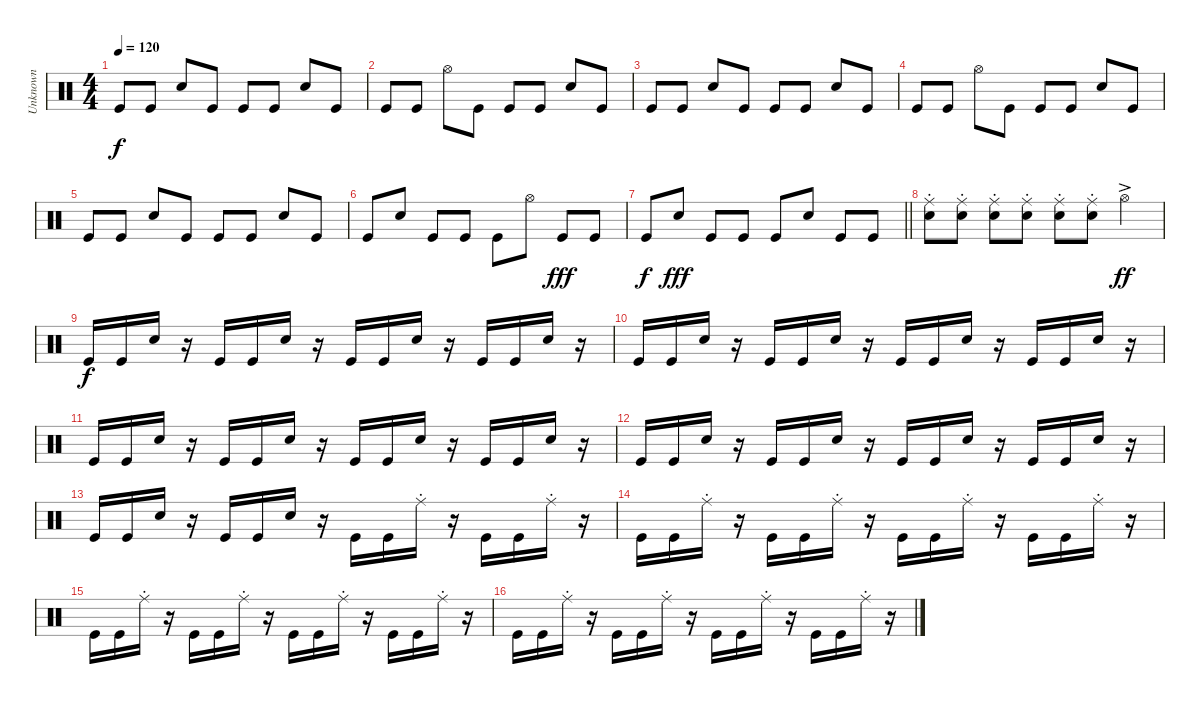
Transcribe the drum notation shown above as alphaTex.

\track ("Unknown" "Unknown") {instrument percussion}
\staff {score}
\articulation defaults
\ts (4 4)
\tempo 120
\clef neutral
\ks c "Kick (hit)".8{dy f} "Kick (hit)".8 "Snare (hit) 2".8 "Kick (hit)".8 "Kick (hit)".8 "Kick (hit)".8 "Snare (hit) 2".8 "Kick (hit)".8
|
"Kick (hit)".8 "Kick (hit)".8 "Hi-Hat (open)".8 "Kick (hit)".8 "Kick (hit)".8 "Kick (hit)".8 "Snare (hit) 2".8 "Kick (hit)".8 |
"Kick (hit)".8 "Kick (hit)".8 "Snare (hit) 2".8 "Kick (hit)".8 "Kick (hit)".8 "Kick (hit)".8 "Snare (hit) 2".8 "Kick (hit)".8 |
"Kick (hit)".8 "Kick (hit)".8 "Hi-Hat (open)".8 "Kick (hit)".8 "Kick (hit)".8 "Kick (hit)".8 "Snare (hit) 2".8 "Kick (hit)".8 |
"Kick (hit)".8 "Kick (hit)".8 "Snare (hit) 2".8 "Kick (hit)".8 "Kick (hit)".8 "Kick (hit)".8 "Snare (hit) 2".8 "Kick (hit)".8 |
"Kick (hit)".8 "Snare (hit) 2".8 "Kick (hit)".8 "Kick (hit)".8 "Kick (hit)".8 "Hi-Hat (open)".8 "Kick (hit)".8{dy fff} "Kick (hit)".8 |
\barLineRight lightlight "Kick (hit)".8{dy f} "Snare (hit) 2".8{dy fff} "Kick (hit)".8 "Kick (hit)".8 "Kick (hit)".8 "Snare (hit) 2".8 "Kick (hit)".8 "Kick (hit)".8
|
("Ride (middle)"{st} "Snare (hit) 2"{st}).8 ("Ride (middle)"{st} "Snare (hit) 2"{st}).8 ("Ride (middle)"{st} "Snare (hit) 2"{st}).8 ("Ride (middle)"{st} "Snare (hit) 2"{st}).8 ("Ride (middle)"{st} "Snare (hit) 2"{st}).8 ("Ride (middle)"{st} "Snare (hit) 2"{st}).8 "Hi-Hat (open)"{ac}.4{dy ff} |
"Kick (hit)".16{dy f} "Kick (hit)".16 "Snare (hit) 2".16 r.16 "Kick (hit)".16 "Kick (hit)".16 "Snare (hit) 2".16 r.16 "Kick (hit)".16 "Kick (hit)".16 "Snare (hit) 2".16 r.16 "Kick (hit)".16 "Kick (hit)".16 "Snare (hit) 2".16 r.16 |
"Kick (hit)".16 "Kick (hit)".16 "Snare (hit) 2".16 r.16 "Kick (hit)".16 "Kick (hit)".16 "Snare (hit) 2".16 r.16 "Kick (hit)".16 "Kick (hit)".16 "Snare (hit) 2".16 r.16 "Kick (hit)".16 "Kick (hit)".16 "Snare (hit) 2".16 r.16 |
"Kick (hit)".16 "Kick (hit)".16 "Snare (hit) 2".16 r.16 "Kick (hit)".16 "Kick (hit)".16 "Snare (hit) 2".16 r.16 "Kick (hit)".16 "Kick (hit)".16 "Snare (hit) 2".16 r.16 "Kick (hit)".16 "Kick (hit)".16 "Snare (hit) 2".16 r.16 |
"Kick (hit)".16 "Kick (hit)".16 "Snare (hit) 2".16 r.16 "Kick (hit)".16 "Kick (hit)".16 "Snare (hit) 2".16 r.16 "Kick (hit)".16 "Kick (hit)".16 "Snare (hit) 2".16 r.16 "Kick (hit)".16 "Kick (hit)".16 "Snare (hit) 2".16 r.16 |
"Kick (hit)".16 "Kick (hit)".16 "Snare (hit) 2".16 r.16 "Kick (hit)".16 "Kick (hit)".16 "Snare (hit) 2".16 r.16 "Kick (hit)".16 "Kick (hit)".16 "Ride (middle)"{st}.16 r.16 "Kick (hit)".16 "Kick (hit)".16 "Ride (middle)"{st}.16 r.16 |
"Kick (hit)".16 "Kick (hit)".16 "Ride (middle)"{st}.16 r.16 "Kick (hit)".16 "Kick (hit)".16 "Ride (middle)"{st}.16 r.16 "Kick (hit)".16 "Kick (hit)".16 "Ride (middle)"{st}.16 r.16 "Kick (hit)".16 "Kick (hit)".16 "Ride (middle)"{st}.16 r.16 |
"Kick (hit)".16 "Kick (hit)".16 "Ride (middle)"{st}.16 r.16 "Kick (hit)".16 "Kick (hit)".16 "Ride (middle)"{st}.16 r.16 "Kick (hit)".16 "Kick (hit)".16 "Ride (middle)"{st}.16 r.16 "Kick (hit)".16 "Kick (hit)".16 "Ride (middle)"{st}.16 r.16 |
"Kick (hit)".16 "Kick (hit)".16 "Ride (middle)"{st}.16 r.16 "Kick (hit)".16 "Kick (hit)".16 "Ride (middle)"{st}.16 r.16 "Kick (hit)".16 "Kick (hit)".16 "Ride (middle)"{st}.16 r.16 "Kick (hit)".16 "Kick (hit)".16 "Ride (middle)"{st}.16 r.16
